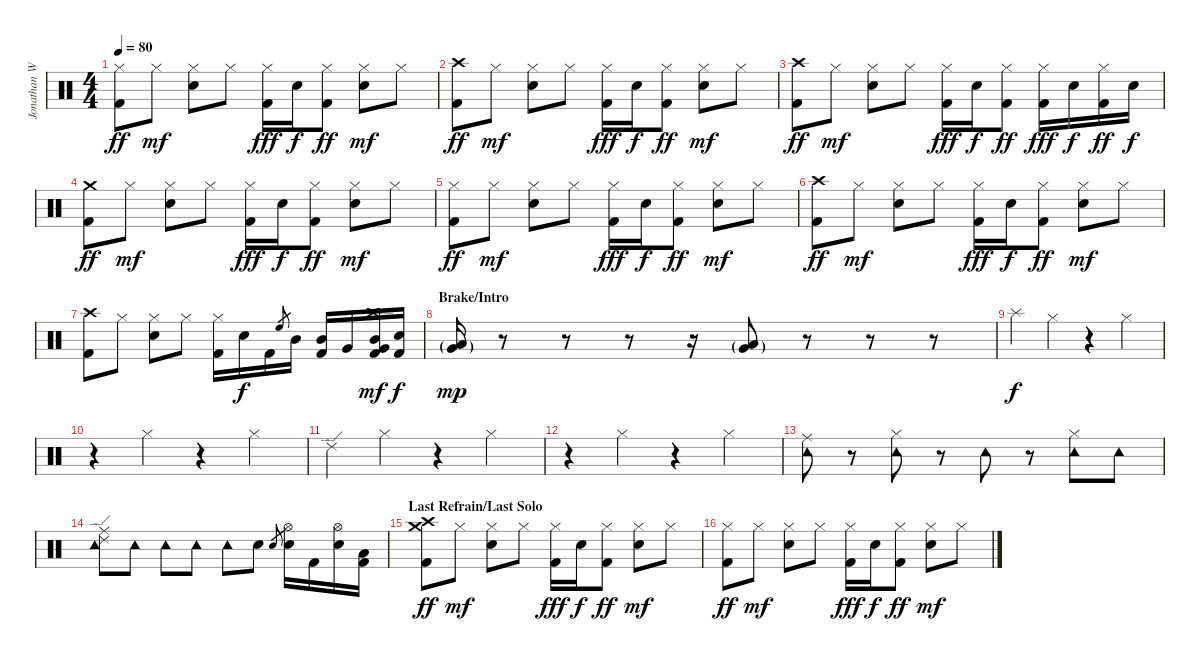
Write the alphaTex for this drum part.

\track ("Jonathan Wenzel" "Jonathan W") {instrument percussion}
\staff {score}
\articulation defaults
\ts (4 4)
\tempo 80
\clef neutral
\ks c
("Hi-Hat (closed)" "Kick (hit) 2").8{dy ff} "Hi-Hat (closed)".8{dy mf} ("Hi-Hat (closed)" "Electric Snare (hit)").8 "Hi-Hat (closed)".8 ("Hi-Hat (closed)" "Kick (hit) 2").16{dy fff} "Electric Snare (hit)".16{dy f} ("Hi-Hat (closed)" "Kick (hit) 2").8{dy ff} ("Hi-Hat (closed)" "Electric Snare (hit)").8{dy mf} "Hi-Hat (closed)".8 |
("Crash high (hit)" "Kick (hit) 2").8{dy ff} "Hi-Hat (closed)".8{dy mf} ("Hi-Hat (closed)" "Electric Snare (hit)").8 "Hi-Hat (closed)".8 ("Hi-Hat (closed)" "Kick (hit) 2").16{dy fff} "Electric Snare (hit)".16{dy f} ("Hi-Hat (closed)" "Kick (hit) 2").8{dy ff} ("Hi-Hat (closed)" "Electric Snare (hit)").8{dy mf} "Hi-Hat (closed)".8 |
("Crash high (hit)" "Kick (hit) 2").8{dy ff} "Hi-Hat (closed)".8{dy mf} ("Hi-Hat (closed)" "Electric Snare (hit)").8 "Hi-Hat (closed)".8 ("Hi-Hat (closed)" "Kick (hit) 2").16{dy fff} "Electric Snare (hit)".16{dy f} ("Hi-Hat (closed)" "Kick (hit) 2").8{dy ff} ("Hi-Hat (closed)" "Kick (hit) 2").16{dy fff} "Electric Snare (hit)".16{dy f} ("Hi-Hat (closed)" "Kick (hit) 2").16{dy ff} "Electric Snare (hit)".16{dy f} |
("Crash medium (hit)" "Kick (hit) 2").8{dy ff} "Hi-Hat (closed)".8{dy mf} ("Hi-Hat (closed)" "Electric Snare (hit)").8 "Hi-Hat (closed)".8 ("Hi-Hat (closed)" "Kick (hit) 2").16{dy fff} "Electric Snare (hit)".16{dy f} ("Hi-Hat (closed)" "Kick (hit) 2").8{dy ff} ("Hi-Hat (closed)" "Electric Snare (hit)").8{dy mf} "Hi-Hat (closed)".8 |
("Hi-Hat (closed)" "Kick (hit) 2").8{dy ff} "Hi-Hat (closed)".8{dy mf} ("Hi-Hat (closed)" "Electric Snare (hit)").8 "Hi-Hat (closed)".8 ("Hi-Hat (closed)" "Kick (hit) 2").16{dy fff} "Electric Snare (hit)".16{dy f} ("Hi-Hat (closed)" "Kick (hit) 2").8{dy ff} ("Hi-Hat (closed)" "Electric Snare (hit)").8{dy mf} "Hi-Hat (closed)".8 |
("Crash high (hit)" "Kick (hit) 2").8{dy ff} "Hi-Hat (closed)".8{dy mf} ("Hi-Hat (closed)" "Electric Snare (hit)").8 "Hi-Hat (closed)".8 ("Hi-Hat (closed)" "Kick (hit) 2").16{dy fff} "Electric Snare (hit)".16{dy f} ("Hi-Hat (closed)" "Kick (hit) 2").8{dy ff} ("Hi-Hat (closed)" "Electric Snare (hit)").8{dy mf} "Hi-Hat (closed)".8 |
("Crash high (hit)" "Kick (hit) 2").8 "Hi-Hat (closed)".8 ("Hi-Hat (closed)" "Electric Snare (hit)").8 "Hi-Hat (closed)".8 ("Hi-Hat (closed)" "Kick (hit) 2").16 "Electric Snare (hit)".16{dy f} "Kick (hit) 2".16 "High Floor Tom (hit)".8{gr} "Mid Tom (hit)".16 ("Mid Tom (hit)" "Kick (hit) 2").16 "Very Low Tom (hit)".16 ("Crash high (hit)" "Mid Tom (hit)" "Very Low Tom (hit)" "Kick (hit) 2").16{dy mf} ("Electric Snare (hit)" "Kick (hit) 2").16{dy f} |
\section ("" "Brake/Intro")
("Very Low Tom (hit)"{g} "Low Tom (hit)"{g}).16{dy mp} r.8 r.8 r.8 r.16 ("Low Tom (hit)"{g} "Very Low Tom (hit)"{g}).8 r.8 r.8 r.8 |
"Splash (hit)".4{dy f} "Hi-Hat (closed)".4 r.4 "Hi-Hat (closed)".4 |
r.4 "Hi-Hat (closed)".4 r.4 "Hi-Hat (closed)".4 |
"Ride (edge) 2".4 "Hi-Hat (closed)".4 r.4 "Hi-Hat (closed)".4 |
r.4 "Hi-Hat (closed)".4 r.4 "Hi-Hat (closed)".4 |
("Ride (middle)" "Tambourine (hit)").8 r.8 ("Hi-Hat (closed)" "Tambourine (hit)").8 r.8 "Tambourine (hit)".8 r.8 ("Hi-Hat (closed)" "Tambourine (hit)").8 "Tambourine (hit)".8 |
("Ride (edge) 2" "Ride (middle)" "Tambourine (hit)").8 "Tambourine (hit)".8 "Tambourine (hit)".8 "Tambourine (hit)".8 "Tambourine (hit)".8 "Electric Snare (hit)".8 "Electric Snare (hit)".8{gr} ("Hi-Hat (open)" "Electric Snare (hit)").16 "Kick (hit) 2".16 ("Hi-Hat (open)" "Electric Snare (hit)").16 ("Kick (hit) 2" "Low Floor Tom (hit)").16 |
\section ("" "Last Refrain/Last Solo")
("Crash high (hit)" "Crash medium (hit)" "Kick (hit) 2").8{dy ff volume 15} "Hi-Hat (closed)".8{dy mf} ("Hi-Hat (closed)" "Electric Snare (hit)").8 "Hi-Hat (closed)".8 ("Hi-Hat (closed)" "Kick (hit) 2").16{dy fff} "Electric Snare (hit)".16{dy f} ("Hi-Hat (closed)" "Kick (hit) 2").8{dy ff} ("Hi-Hat (closed)" "Electric Snare (hit)").8{dy mf} "Hi-Hat (closed)".8 |
("Hi-Hat (closed)" "Kick (hit) 2").8{dy ff} "Hi-Hat (closed)".8{dy mf} ("Hi-Hat (closed)" "Electric Snare (hit)").8 "Hi-Hat (closed)".8 ("Hi-Hat (closed)" "Kick (hit) 2").16{dy fff} "Electric Snare (hit)".16{dy f} ("Hi-Hat (closed)" "Kick (hit) 2").8{dy ff} ("Hi-Hat (closed)" "Electric Snare (hit)").8{dy mf} "Hi-Hat (closed)".8
